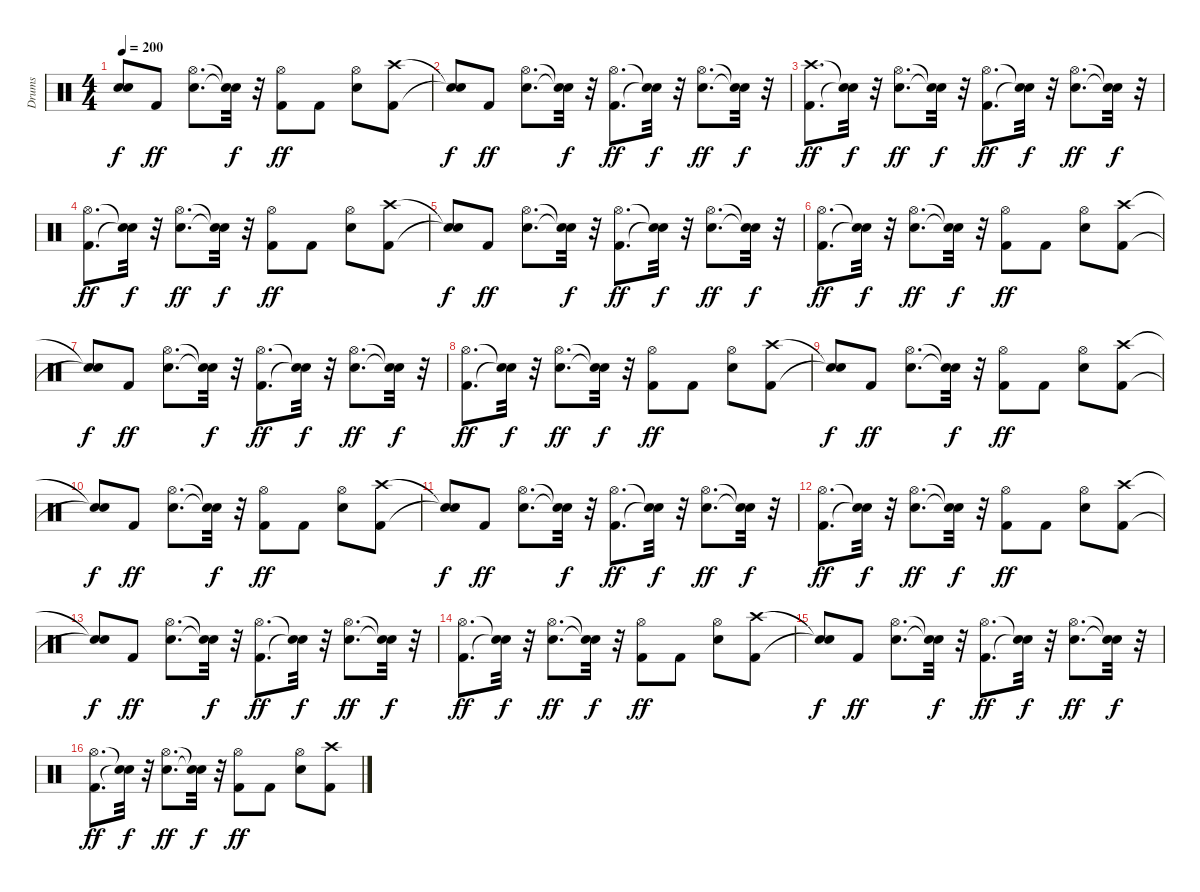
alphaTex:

\track ("Drums" "Drums") {instrument percussion}
\staff {score}
\articulation defaults
\ts (4 4)
\tempo 200
\clef neutral
\ks c
("Snare (hit)"{t} "Snare (hit)"{t}).8{dy f} "Kick (hit) 2".8{dy ff} ("Snare (hit) 2" "Hi-Hat (open)").8{d} ("Snare (hit)"{t} "Snare (hit)"{t}).32{dy f} r.32 ("Kick (hit) 2" "Hi-Hat (open)").8{dy ff} "Kick (hit) 2".8 ("Snare (hit) 2" "Hi-Hat (open)").8 ("Kick (hit) 2" "Crash high (hit)").8 |
("Snare (hit)"{t} "Snare (hit)"{t}).8{dy f} "Kick (hit) 2".8{dy ff} ("Snare (hit) 2" "Hi-Hat (open)").8{d} ("Snare (hit)"{t} "Snare (hit)"{t}).32{dy f} r.32 ("Kick (hit) 2" "Hi-Hat (open)").8{d dy ff} ("Snare (hit)"{t} "Snare (hit)"{t}).32{dy f} r.32 ("Snare (hit) 2" "Hi-Hat (open)").8{d dy ff} ("Snare (hit)"{t} "Snare (hit)"{t}).32{dy f} r.32 |
("Kick (hit) 2" "Crash high (hit)").8{d dy ff} ("Snare (hit)"{t} "Snare (hit)"{t}).32{dy f} r.32 ("Snare (hit) 2" "Hi-Hat (open)").8{d dy ff} ("Snare (hit)"{t} "Snare (hit)"{t}).32{dy f} r.32 ("Kick (hit) 2" "Hi-Hat (open)").8{d dy ff} ("Snare (hit)"{t} "Snare (hit)"{t}).32{dy f} r.32 ("Snare (hit) 2" "Hi-Hat (open)").8{d dy ff} ("Snare (hit)"{t} "Snare (hit)"{t}).32{dy f} r.32 |
("Kick (hit) 2" "Hi-Hat (open)").8{d dy ff} ("Snare (hit)"{t} "Snare (hit)"{t}).32{dy f} r.32 ("Snare (hit) 2" "Hi-Hat (open)").8{d dy ff} ("Snare (hit)"{t} "Snare (hit)"{t}).32{dy f} r.32 ("Kick (hit) 2" "Hi-Hat (open)").8{dy ff} "Kick (hit) 2".8 ("Snare (hit) 2" "Hi-Hat (open)").8 ("Kick (hit) 2" "Crash high (hit)").8 |
("Snare (hit)"{t} "Snare (hit)"{t}).8{dy f} "Kick (hit) 2".8{dy ff} ("Snare (hit) 2" "Hi-Hat (open)").8{d} ("Snare (hit)"{t} "Snare (hit)"{t}).32{dy f} r.32 ("Kick (hit) 2" "Hi-Hat (open)").8{d dy ff} ("Snare (hit)"{t} "Snare (hit)"{t}).32{dy f} r.32 ("Snare (hit) 2" "Hi-Hat (open)").8{d dy ff} ("Snare (hit)"{t} "Snare (hit)"{t}).32{dy f} r.32 |
("Kick (hit) 2" "Hi-Hat (open)").8{d dy ff} ("Snare (hit)"{t} "Snare (hit)"{t}).32{dy f} r.32 ("Snare (hit) 2" "Hi-Hat (open)").8{d dy ff} ("Snare (hit)"{t} "Snare (hit)"{t}).32{dy f} r.32 ("Kick (hit) 2" "Hi-Hat (open)").8{dy ff} "Kick (hit) 2".8 ("Snare (hit) 2" "Hi-Hat (open)").8 ("Kick (hit) 2" "Crash high (hit)").8 |
("Snare (hit)"{t} "Snare (hit)"{t}).8{dy f} "Kick (hit) 2".8{dy ff} ("Snare (hit) 2" "Hi-Hat (open)").8{d} ("Snare (hit)"{t} "Snare (hit)"{t}).32{dy f} r.32 ("Kick (hit) 2" "Hi-Hat (open)").8{d dy ff} ("Snare (hit)"{t} "Snare (hit)"{t}).32{dy f} r.32 ("Snare (hit) 2" "Hi-Hat (open)").8{d dy ff} ("Snare (hit)"{t} "Snare (hit)"{t}).32{dy f} r.32 |
("Kick (hit) 2" "Hi-Hat (open)").8{d dy ff} ("Snare (hit)"{t} "Snare (hit)"{t}).32{dy f} r.32 ("Snare (hit) 2" "Hi-Hat (open)").8{d dy ff} ("Snare (hit)"{t} "Snare (hit)"{t}).32{dy f} r.32 ("Kick (hit) 2" "Hi-Hat (open)").8{dy ff} "Kick (hit) 2".8 ("Snare (hit) 2" "Hi-Hat (open)").8 ("Kick (hit) 2" "Crash high (hit)").8 |
("Snare (hit)"{t} "Snare (hit)"{t}).8{dy f} "Kick (hit) 2".8{dy ff} ("Snare (hit) 2" "Hi-Hat (open)").8{d} ("Snare (hit)"{t} "Snare (hit)"{t}).32{dy f} r.32 ("Kick (hit) 2" "Hi-Hat (open)").8{dy ff} "Kick (hit) 2".8 ("Snare (hit) 2" "Hi-Hat (open)").8 ("Kick (hit) 2" "Crash high (hit)").8 |
("Snare (hit)"{t} "Snare (hit)"{t}).8{dy f} "Kick (hit) 2".8{dy ff} ("Snare (hit) 2" "Hi-Hat (open)").8{d} ("Snare (hit)"{t} "Snare (hit)"{t}).32{dy f} r.32 ("Kick (hit) 2" "Hi-Hat (open)").8{dy ff} "Kick (hit) 2".8 ("Snare (hit) 2" "Hi-Hat (open)").8 ("Kick (hit) 2" "Crash high (hit)").8 |
("Snare (hit)"{t} "Snare (hit)"{t}).8{dy f} "Kick (hit) 2".8{dy ff} ("Snare (hit) 2" "Hi-Hat (open)").8{d} ("Snare (hit)"{t} "Snare (hit)"{t}).32{dy f} r.32 ("Kick (hit) 2" "Hi-Hat (open)").8{d dy ff} ("Snare (hit)"{t} "Snare (hit)"{t}).32{dy f} r.32 ("Snare (hit) 2" "Hi-Hat (open)").8{d dy ff} ("Snare (hit)"{t} "Snare (hit)"{t}).32{dy f} r.32 |
("Kick (hit) 2" "Hi-Hat (open)").8{d dy ff} ("Snare (hit)"{t} "Snare (hit)"{t}).32{dy f} r.32 ("Snare (hit) 2" "Hi-Hat (open)").8{d dy ff} ("Snare (hit)"{t} "Snare (hit)"{t}).32{dy f} r.32 ("Kick (hit) 2" "Hi-Hat (open)").8{dy ff} "Kick (hit) 2".8 ("Snare (hit) 2" "Hi-Hat (open)").8 ("Kick (hit) 2" "Crash high (hit)").8 |
("Snare (hit)"{t} "Snare (hit)"{t}).8{dy f} "Kick (hit) 2".8{dy ff} ("Snare (hit) 2" "Hi-Hat (open)").8{d} ("Snare (hit)"{t} "Snare (hit)"{t}).32{dy f} r.32 ("Kick (hit) 2" "Hi-Hat (open)").8{d dy ff} ("Snare (hit)"{t} "Snare (hit)"{t}).32{dy f} r.32 ("Snare (hit) 2" "Hi-Hat (open)").8{d dy ff} ("Snare (hit)"{t} "Snare (hit)"{t}).32{dy f} r.32 |
("Kick (hit) 2" "Hi-Hat (open)").8{d dy ff} ("Snare (hit)"{t} "Snare (hit)"{t}).32{dy f} r.32 ("Snare (hit) 2" "Hi-Hat (open)").8{d dy ff} ("Snare (hit)"{t} "Snare (hit)"{t}).32{dy f} r.32 ("Kick (hit) 2" "Hi-Hat (open)").8{dy ff} "Kick (hit) 2".8 ("Snare (hit) 2" "Hi-Hat (open)").8 ("Kick (hit) 2" "Crash high (hit)").8 |
("Snare (hit)"{t} "Snare (hit)"{t}).8{dy f} "Kick (hit) 2".8{dy ff} ("Snare (hit) 2" "Hi-Hat (open)").8{d} ("Snare (hit)"{t} "Snare (hit)"{t}).32{dy f} r.32 ("Kick (hit) 2" "Hi-Hat (open)").8{d dy ff} ("Snare (hit)"{t} "Snare (hit)"{t}).32{dy f} r.32 ("Snare (hit) 2" "Hi-Hat (open)").8{d dy ff} ("Snare (hit)"{t} "Snare (hit)"{t}).32{dy f} r.32 |
("Kick (hit) 2" "Hi-Hat (open)").8{d dy ff} ("Snare (hit)"{t} "Snare (hit)"{t}).32{dy f} r.32 ("Snare (hit) 2" "Hi-Hat (open)").8{d dy ff} ("Snare (hit)"{t} "Snare (hit)"{t}).32{dy f} r.32 ("Kick (hit) 2" "Hi-Hat (open)").8{dy ff} "Kick (hit) 2".8 ("Snare (hit) 2" "Hi-Hat (open)").8 ("Kick (hit) 2" "Crash high (hit)").8
